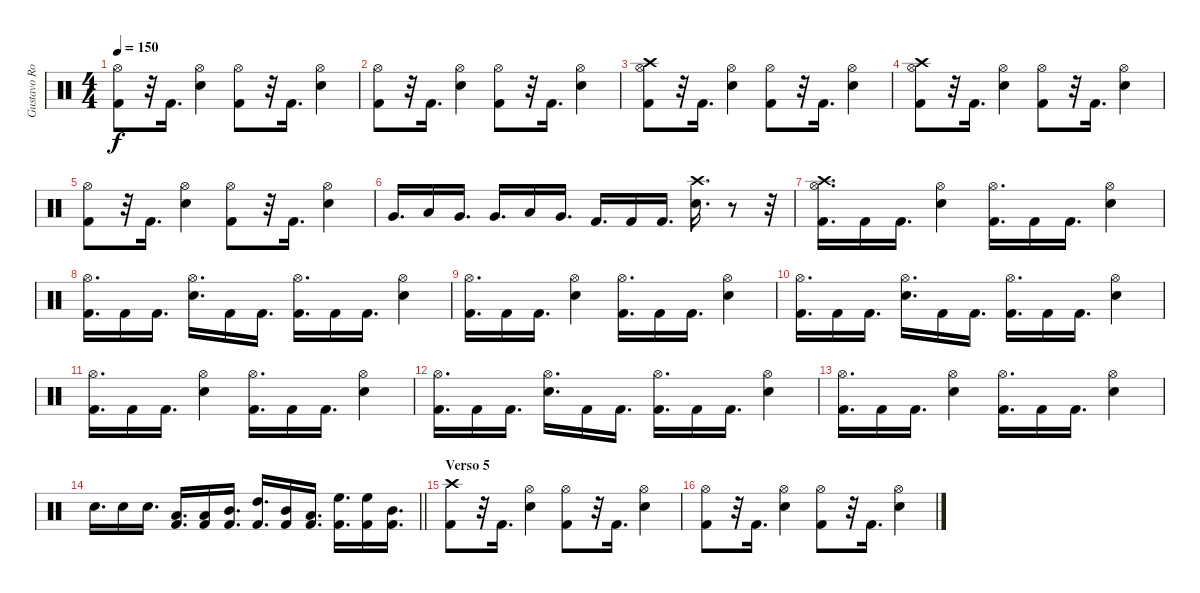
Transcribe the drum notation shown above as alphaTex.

\track ("Gustavo Rowek" "Gustavo Ro") {instrument percussion}
\staff {score}
\articulation defaults
\ts (4 4)
\tempo 150
\clef neutral
\ks c
("Hi-Hat (open)" "Kick (hit) 2").8{dy f} r.32 "Kick (hit) 2".16{d} ("Hi-Hat (open)" "Electric Snare (hit)").4 ("Hi-Hat (open)" "Kick (hit) 2").8 r.32 "Kick (hit) 2".16{d} ("Hi-Hat (open)" "Electric Snare (hit)").4 |
("Hi-Hat (open)" "Kick (hit) 2").8 r.32 "Kick (hit) 2".16{d} ("Hi-Hat (open)" "Electric Snare (hit)").4 ("Hi-Hat (open)" "Kick (hit) 2").8 r.32 "Kick (hit) 2".16{d} ("Hi-Hat (open)" "Electric Snare (hit)").4 |
("Crash high (hit)" "Hi-Hat (open)" "Kick (hit) 2").8 r.32 "Kick (hit) 2".16{d} ("Hi-Hat (open)" "Electric Snare (hit)").4 ("Hi-Hat (open)" "Kick (hit) 2").8 r.32 "Kick (hit) 2".16{d} ("Hi-Hat (open)" "Electric Snare (hit)").4 |
("Crash high (hit)" "Hi-Hat (open)" "Kick (hit) 2").8 r.32 "Kick (hit) 2".16{d} ("Hi-Hat (open)" "Electric Snare (hit)").4 ("Hi-Hat (open)" "Kick (hit) 2").8 r.32 "Kick (hit) 2".16{d} ("Hi-Hat (open)" "Electric Snare (hit)").4 |
("Hi-Hat (open)" "Kick (hit) 2").8 r.32 "Kick (hit) 2".16{d} ("Hi-Hat (open)" "Electric Snare (hit)").4 ("Hi-Hat (open)" "Kick (hit) 2").8 r.32 "Kick (hit) 2".16{d} ("Hi-Hat (open)" "Electric Snare (hit)").4 |
"Very Low Tom (hit)".16{d} "Low Tom (hit)".16 "Very Low Tom (hit)".16{d} "Very Low Tom (hit)".16{d} "Low Tom (hit)".16 "Very Low Tom (hit)".16{d} "Kick (hit) 2".16{d} "Kick (hit) 2".16 "Kick (hit) 2".16{d} ("Crash high (hit)" "Electric Snare (hit)").16{d} r.8 r.32 |
("Crash high (hit)" "Hi-Hat (open)" "Kick (hit) 2").16{d} "Kick (hit) 2".16 "Kick (hit) 2".16{d} ("Hi-Hat (open)" "Electric Snare (hit)").4 ("Hi-Hat (open)" "Kick (hit) 2").16{d} "Kick (hit) 2".16 "Kick (hit) 2".16{d} ("Hi-Hat (open)" "Electric Snare (hit)").4 |
("Hi-Hat (open)" "Kick (hit) 2").16{d} "Kick (hit) 2".16 "Kick (hit) 2".16{d} ("Hi-Hat (open)" "Electric Snare (hit)").16{d} "Kick (hit) 2".16 "Kick (hit) 2".16{d} ("Hi-Hat (open)" "Kick (hit) 2").16{d} "Kick (hit) 2".16 "Kick (hit) 2".16{d} ("Hi-Hat (open)" "Electric Snare (hit)").4 |
("Hi-Hat (open)" "Kick (hit) 2").16{d} "Kick (hit) 2".16 "Kick (hit) 2".16{d} ("Hi-Hat (open)" "Electric Snare (hit)").4 ("Hi-Hat (open)" "Kick (hit) 2").16{d} "Kick (hit) 2".16 "Kick (hit) 2".16{d} ("Hi-Hat (open)" "Electric Snare (hit)").4 |
("Hi-Hat (open)" "Kick (hit) 2").16{d} "Kick (hit) 2".16 "Kick (hit) 2".16{d} ("Hi-Hat (open)" "Electric Snare (hit)").16{d} "Kick (hit) 2".16 "Kick (hit) 2".16{d} ("Hi-Hat (open)" "Kick (hit) 2").16{d} "Kick (hit) 2".16 "Kick (hit) 2".16{d} ("Hi-Hat (open)" "Electric Snare (hit)").4 |
("Hi-Hat (open)" "Kick (hit) 2").16{d} "Kick (hit) 2".16 "Kick (hit) 2".16{d} ("Hi-Hat (open)" "Electric Snare (hit)").4 ("Hi-Hat (open)" "Kick (hit) 2").16{d} "Kick (hit) 2".16 "Kick (hit) 2".16{d} ("Hi-Hat (open)" "Electric Snare (hit)").4 |
("Hi-Hat (open)" "Kick (hit) 2").16{d} "Kick (hit) 2".16 "Kick (hit) 2".16{d} ("Hi-Hat (open)" "Electric Snare (hit)").16{d} "Kick (hit) 2".16 "Kick (hit) 2".16{d} ("Hi-Hat (open)" "Kick (hit) 2").16{d} "Kick (hit) 2".16 "Kick (hit) 2".16{d} ("Hi-Hat (open)" "Electric Snare (hit)").4 |
("Hi-Hat (open)" "Kick (hit) 2").16{d} "Kick (hit) 2".16 "Kick (hit) 2".16{d} ("Hi-Hat (open)" "Electric Snare (hit)").4 ("Hi-Hat (open)" "Kick (hit) 2").16{d} "Kick (hit) 2".16 "Kick (hit) 2".16{d} ("Hi-Hat (open)" "Electric Snare (hit)").4 |
\barLineRight lightlight "Electric Snare (hit)".16{d} "Electric Snare (hit)".16 "Electric Snare (hit)".16{d}
("Low Tom (hit)" "Kick (hit) 2").16{d} ("Low Tom (hit)" "Kick (hit) 2").16 ("Mid Tom (hit)" "Kick (hit) 2").16{d} ("High Tom (hit)" "Kick (hit) 2").16{d} ("Mid Tom (hit)" "Kick (hit) 2").16 ("Low Tom (hit)" "Kick (hit) 2").16{d} ("High Floor Tom (hit)" "Kick (hit) 2").16{d} ("High Floor Tom (hit)" "Kick (hit) 2").16 ("Mid Tom (hit)" "Kick (hit) 2").16{d} |
\section ("" "Verso 5")
("Crash high (hit)" "Kick (hit) 2").8 r.32 "Kick (hit) 2".16{d} ("Hi-Hat (open)" "Electric Snare (hit)").4 ("Hi-Hat (open)" "Kick (hit) 2").8 r.32 "Kick (hit) 2".16{d} ("Hi-Hat (open)" "Electric Snare (hit)").4 |
("Hi-Hat (open)" "Kick (hit) 2").8 r.32 "Kick (hit) 2".16{d} ("Hi-Hat (open)" "Electric Snare (hit)").4 ("Hi-Hat (open)" "Kick (hit) 2").8 r.32 "Kick (hit) 2".16{d} ("Hi-Hat (open)" "Electric Snare (hit)").4
